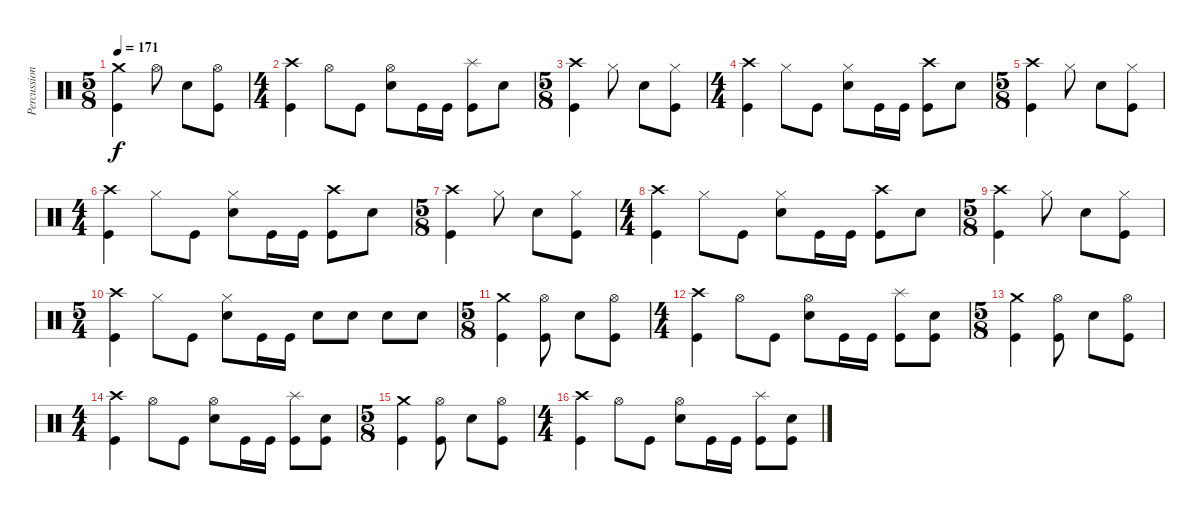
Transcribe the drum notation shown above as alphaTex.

\track ("Percussions" "Percussion") {instrument percussion}
\staff {score}
\articulation defaults
\ts (5 8)
\tempo 171
\clef neutral
\ks c
("Crash medium (hit)" "Kick (hit)").4{dy f} "Hi-Hat (open)".8 "Snare (hit) 2".8 ("Hi-Hat (open)" "Kick (hit)").8 |
\ts (4 4)
("Crash high (hit)" "Kick (hit)").4 "Hi-Hat (open)".8 "Kick (hit)".8 ("Hi-Hat (open)" "Snare (hit) 2").8 "Kick (hit)".16 "Kick (hit)".16 ("Splash (hit)" "Kick (hit)").8 "Snare (hit) 2".8 |
\ts (5 8)
("Crash high (hit)" "Kick (hit)").4 "Hi-Hat (closed)".8 "Snare (hit) 2".8 ("Hi-Hat (closed)" "Kick (hit)").8 |
\ts (4 4)
("Crash high (hit)" "Kick (hit)").4 "Hi-Hat (closed)".8 "Kick (hit)".8 ("Hi-Hat (closed)" "Snare (hit) 2").8 "Kick (hit)".16 "Kick (hit)".16 ("Crash high (hit)" "Kick (hit)").8 "Snare (hit) 2".8 |
\ts (5 8)
("Crash high (hit)" "Kick (hit)").4 "Hi-Hat (closed)".8 "Snare (hit) 2".8 ("Hi-Hat (closed)" "Kick (hit)").8 |
\ts (4 4)
("Crash high (hit)" "Kick (hit)").4 "Hi-Hat (closed)".8 "Kick (hit)".8 ("Hi-Hat (closed)" "Snare (hit) 2").8 "Kick (hit)".16 "Kick (hit)".16 ("Crash high (hit)" "Kick (hit)").8 "Snare (hit) 2".8 |
\ts (5 8)
("Crash high (hit)" "Kick (hit)").4 "Hi-Hat (closed)".8 "Snare (hit) 2".8 ("Hi-Hat (closed)" "Kick (hit)").8 |
\ts (4 4)
("Crash high (hit)" "Kick (hit)").4 "Hi-Hat (closed)".8 "Kick (hit)".8 ("Hi-Hat (closed)" "Snare (hit) 2").8 "Kick (hit)".16 "Kick (hit)".16 ("Crash high (hit)" "Kick (hit)").8 "Snare (hit) 2".8 |
\ts (5 8)
("Crash high (hit)" "Kick (hit)").4 "Hi-Hat (closed)".8 "Snare (hit) 2".8 ("Hi-Hat (closed)" "Kick (hit)").8 |
\ts (5 4)
("Crash high (hit)" "Kick (hit)").4 "Hi-Hat (closed)".8 "Kick (hit)".8 ("Hi-Hat (closed)" "Snare (hit) 2").8 "Kick (hit)".16 "Kick (hit)".16 "Snare (hit) 2".8 "Snare (hit) 2".8 "Snare (hit) 2".8 "Snare (hit) 2".8 |
\ts (5 8)
("Crash medium (hit)" "Kick (hit)").4 ("Hi-Hat (open)" "Kick (hit)").8 "Snare (hit) 2".8 ("Hi-Hat (open)" "Kick (hit)").8 |
\ts (4 4)
("Crash high (hit)" "Kick (hit)").4 "Hi-Hat (open)".8 "Kick (hit)".8 ("Hi-Hat (open)" "Snare (hit) 2").8 "Kick (hit)".16 "Kick (hit)".16 ("Splash (hit)" "Kick (hit)").8 ("Snare (hit) 2" "Kick (hit)").8 |
\ts (5 8)
("Crash medium (hit)" "Kick (hit)").4 ("Hi-Hat (open)" "Kick (hit)").8 "Snare (hit) 2".8 ("Hi-Hat (open)" "Kick (hit)").8 |
\ts (4 4)
("Crash high (hit)" "Kick (hit)").4 "Hi-Hat (open)".8 "Kick (hit)".8 ("Hi-Hat (open)" "Snare (hit) 2").8 "Kick (hit)".16 "Kick (hit)".16 ("Splash (hit)" "Kick (hit)").8 ("Snare (hit) 2" "Kick (hit)").8 |
\ts (5 8)
("Crash medium (hit)" "Kick (hit)").4 ("Hi-Hat (open)" "Kick (hit)").8 "Snare (hit) 2".8 ("Hi-Hat (open)" "Kick (hit)").8 |
\ts (4 4)
("Crash high (hit)" "Kick (hit)").4 "Hi-Hat (open)".8 "Kick (hit)".8 ("Hi-Hat (open)" "Snare (hit) 2").8 "Kick (hit)".16 "Kick (hit)".16 ("Splash (hit)" "Kick (hit)").8 ("Snare (hit) 2" "Kick (hit)").8
